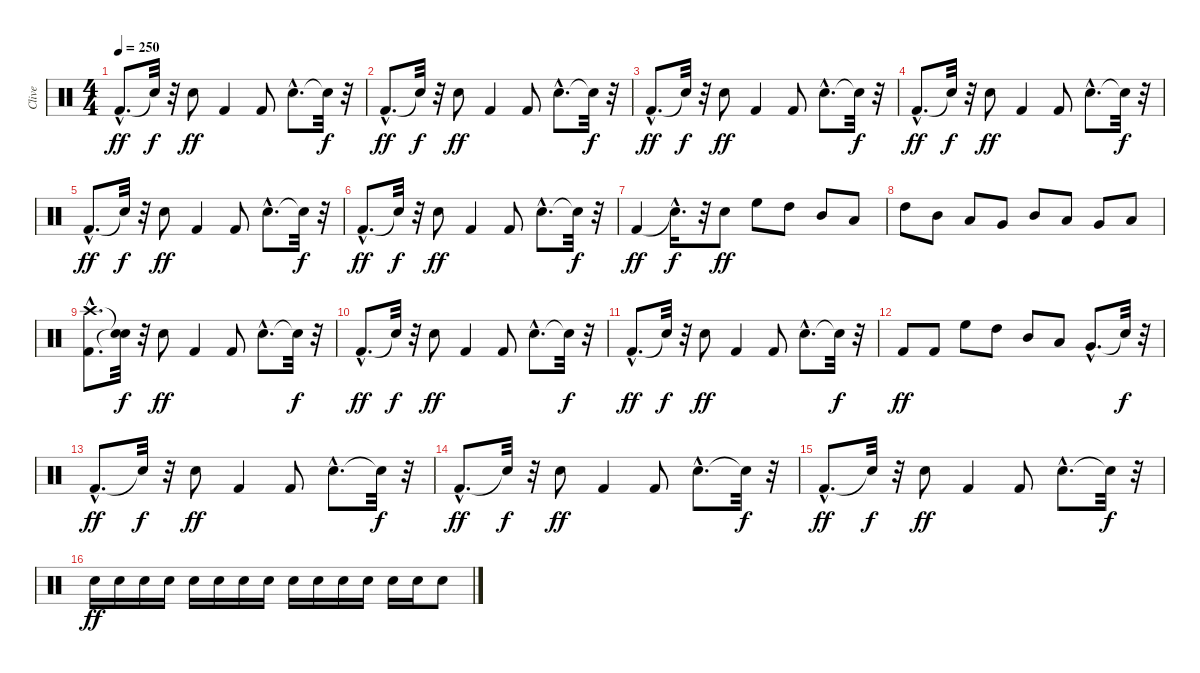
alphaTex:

\track ("Clive" "Clive") {instrument percussion}
\staff {score}
\articulation defaults
\ts (4 4)
\tempo 250
\clef neutral
\ks c "Kick (hit) 2"{hac}.8{d dy ff} "Snare (hit)"{t}.32{dy f}
r.32 "Snare (hit) 2".8{dy ff} "Kick (hit) 2".4 "Kick (hit) 2".8 "Snare (hit) 2"{hac}.8{d} "Snare (hit)"{t}.32{dy f} r.32 |
"Kick (hit) 2"{hac}.8{d dy ff} "Snare (hit)"{t}.32{dy f} r.32 "Snare (hit) 2".8{dy ff} "Kick (hit) 2".4 "Kick (hit) 2".8 "Snare (hit) 2"{hac}.8{d} "Snare (hit)"{t}.32{dy f} r.32 |
"Kick (hit) 2"{hac}.8{d dy ff} "Snare (hit)"{t}.32{dy f} r.32 "Snare (hit) 2".8{dy ff} "Kick (hit) 2".4 "Kick (hit) 2".8 "Snare (hit) 2"{hac}.8{d} "Snare (hit)"{t}.32{dy f} r.32 |
"Kick (hit) 2"{hac}.8{d dy ff} "Snare (hit)"{t}.32{dy f} r.32 "Snare (hit) 2".8{dy ff} "Kick (hit) 2".4 "Kick (hit) 2".8 "Snare (hit) 2"{hac}.8{d} "Snare (hit)"{t}.32{dy f} r.32 |
"Kick (hit) 2"{hac}.8{d dy ff} "Snare (hit)"{t}.32{dy f} r.32 "Snare (hit) 2".8{dy ff} "Kick (hit) 2".4 "Kick (hit) 2".8 "Snare (hit) 2"{hac}.8{d} "Snare (hit)"{t}.32{dy f} r.32 |
"Kick (hit) 2"{hac}.8{d dy ff} "Snare (hit)"{t}.32{dy f} r.32 "Snare (hit) 2".8{dy ff} "Kick (hit) 2".4 "Kick (hit) 2".8 "Snare (hit) 2"{hac}.8{d} "Snare (hit)"{t}.32{dy f} r.32 |
"Kick (hit) 2".4{dy ff} "Snare (hit)"{hac t}.16{d dy f} r.32 "Snare (hit) 2".8{dy ff} "High Floor Tom (hit)".8 "High Tom (hit)".8 "Mid Tom (hit)".8 "Low Tom (hit)".8 |
"High Tom (hit)".8 "Mid Tom (hit)".8 "Low Tom (hit)".8 "Very Low Tom (hit)".8 "Mid Tom (hit)".8 "Low Tom (hit)".8 "Very Low Tom (hit)".8 "Low Floor Tom (hit)".8 |
("Kick (hit) 2"{hac} "Crash high (hit)"{hac}).8{d} ("Snare (hit)"{t} "Snare (hit)"{t}).32{dy f} r.32 "Snare (hit) 2".8{dy ff} "Kick (hit) 2".4 "Kick (hit) 2".8 "Snare (hit) 2"{hac}.8{d} "Snare (hit)"{t}.32{dy f} r.32 |
"Kick (hit) 2"{hac}.8{d dy ff} "Snare (hit)"{t}.32{dy f} r.32 "Snare (hit) 2".8{dy ff} "Kick (hit) 2".4 "Kick (hit) 2".8 "Snare (hit) 2"{hac}.8{d} "Snare (hit)"{t}.32{dy f} r.32 |
"Kick (hit) 2"{hac}.8{d dy ff} "Snare (hit)"{t}.32{dy f} r.32 "Snare (hit) 2".8{dy ff} "Kick (hit) 2".4 "Kick (hit) 2".8 "Snare (hit) 2"{hac}.8{d} "Snare (hit)"{t}.32{dy f} r.32 |
"Kick (hit) 2".8{dy ff} "Kick (hit) 2".8 "High Floor Tom (hit)".8 "High Tom (hit)".8 "Mid Tom (hit)".8 "Low Tom (hit)".8 "Very Low Tom (hit)"{hac}.8{d} "Snare (hit)"{t}.32{dy f} r.32 |
"Kick (hit) 2"{hac}.8{d dy ff} "Snare (hit)"{t}.32{dy f} r.32 "Snare (hit) 2".8{dy ff} "Kick (hit) 2".4 "Kick (hit) 2".8 "Snare (hit) 2"{hac}.8{d} "Snare (hit)"{t}.32{dy f} r.32 |
"Kick (hit) 2"{hac}.8{d dy ff} "Snare (hit)"{t}.32{dy f} r.32 "Snare (hit) 2".8{dy ff} "Kick (hit) 2".4 "Kick (hit) 2".8 "Snare (hit) 2"{hac}.8{d} "Snare (hit)"{t}.32{dy f} r.32 |
"Kick (hit) 2"{hac}.8{d dy ff} "Snare (hit)"{t}.32{dy f} r.32 "Snare (hit) 2".8{dy ff} "Kick (hit) 2".4 "Kick (hit) 2".8 "Snare (hit) 2"{hac}.8{d} "Snare (hit)"{t}.32{dy f} r.32 |
"Snare (hit) 2".16{dy ff} "Snare (hit) 2".16 "Snare (hit) 2".16 "Snare (hit) 2".16 "Snare (hit) 2".16 "Snare (hit) 2".16 "Snare (hit) 2".16 "Snare (hit) 2".16 "Snare (hit) 2".16 "Snare (hit) 2".16 "Snare (hit) 2".16 "Snare (hit) 2".16 "Snare (hit) 2".16 "Snare (hit) 2".16 "Snare (hit) 2".8
